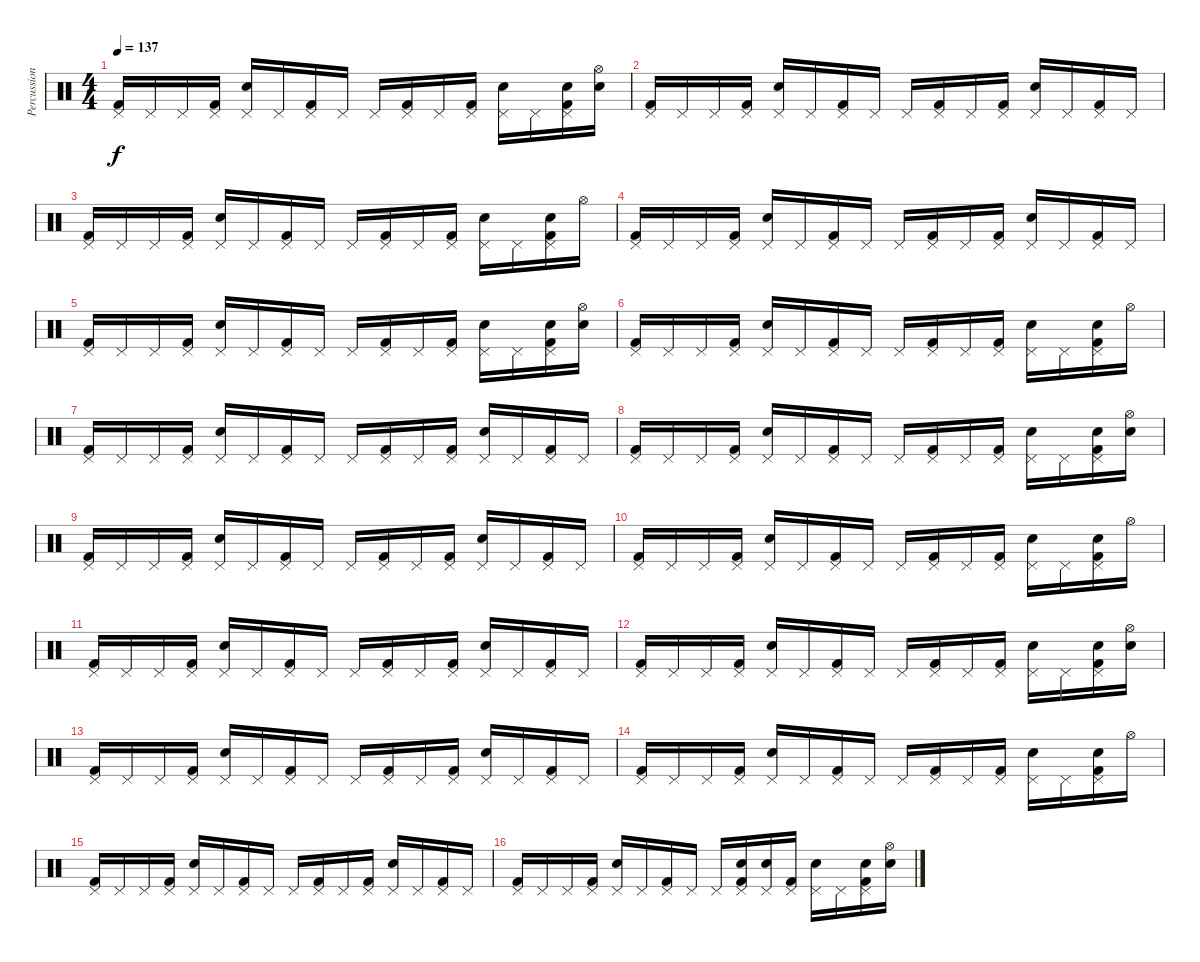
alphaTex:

\track ("Percussion" "Percussion") {instrument percussion}
\staff {score}
\articulation defaults
\ts (4 4)
\tempo 137
\clef neutral
\ks c
("Pedal Hi-Hat (hit)" "Kick (hit) 2").16{dy f} "Pedal Hi-Hat (hit)".16 "Pedal Hi-Hat (hit)".16 ("Pedal Hi-Hat (hit)" "Kick (hit) 2").16 ("Pedal Hi-Hat (hit)" "Snare (hit) 2").16 "Pedal Hi-Hat (hit)".16 ("Pedal Hi-Hat (hit)" "Kick (hit) 2").16 "Pedal Hi-Hat (hit)".16 "Pedal Hi-Hat (hit)".16 ("Pedal Hi-Hat (hit)" "Kick (hit) 2").16 "Pedal Hi-Hat (hit)".16 ("Pedal Hi-Hat (hit)" "Kick (hit) 2").16 ("Pedal Hi-Hat (hit)" "Snare (hit) 2").16 "Pedal Hi-Hat (hit)".16 ("Pedal Hi-Hat (hit)" "Snare (hit) 2" "Kick (hit) 2").16 ("Hi-Hat (open)" "Snare (hit) 2").16 |
("Pedal Hi-Hat (hit)" "Kick (hit) 2").16 "Pedal Hi-Hat (hit)".16 "Pedal Hi-Hat (hit)".16 ("Pedal Hi-Hat (hit)" "Kick (hit) 2").16 ("Pedal Hi-Hat (hit)" "Snare (hit) 2").16 "Pedal Hi-Hat (hit)".16 ("Pedal Hi-Hat (hit)" "Kick (hit) 2").16 "Pedal Hi-Hat (hit)".16 "Pedal Hi-Hat (hit)".16 ("Pedal Hi-Hat (hit)" "Kick (hit) 2").16 "Pedal Hi-Hat (hit)".16 ("Pedal Hi-Hat (hit)" "Kick (hit) 2").16 ("Pedal Hi-Hat (hit)" "Snare (hit) 2").16 "Pedal Hi-Hat (hit)".16 ("Pedal Hi-Hat (hit)" "Kick (hit) 2").16 "Pedal Hi-Hat (hit)".16 |
("Pedal Hi-Hat (hit)" "Kick (hit) 2").16 "Pedal Hi-Hat (hit)".16 "Pedal Hi-Hat (hit)".16 ("Pedal Hi-Hat (hit)" "Kick (hit) 2").16 ("Pedal Hi-Hat (hit)" "Snare (hit) 2").16 "Pedal Hi-Hat (hit)".16 ("Pedal Hi-Hat (hit)" "Kick (hit) 2").16 "Pedal Hi-Hat (hit)".16 "Pedal Hi-Hat (hit)".16 ("Pedal Hi-Hat (hit)" "Kick (hit) 2").16 "Pedal Hi-Hat (hit)".16 ("Pedal Hi-Hat (hit)" "Kick (hit) 2").16 ("Pedal Hi-Hat (hit)" "Snare (hit) 2").16 "Pedal Hi-Hat (hit)".16 ("Pedal Hi-Hat (hit)" "Snare (hit) 2" "Kick (hit) 2").16 "Hi-Hat (open)".16 |
("Pedal Hi-Hat (hit)" "Kick (hit) 2").16 "Pedal Hi-Hat (hit)".16 "Pedal Hi-Hat (hit)".16 ("Pedal Hi-Hat (hit)" "Kick (hit) 2").16 ("Pedal Hi-Hat (hit)" "Snare (hit) 2").16 "Pedal Hi-Hat (hit)".16 ("Pedal Hi-Hat (hit)" "Kick (hit) 2").16 "Pedal Hi-Hat (hit)".16 "Pedal Hi-Hat (hit)".16 ("Pedal Hi-Hat (hit)" "Kick (hit) 2").16 "Pedal Hi-Hat (hit)".16 ("Pedal Hi-Hat (hit)" "Kick (hit) 2").16 ("Pedal Hi-Hat (hit)" "Snare (hit) 2").16 "Pedal Hi-Hat (hit)".16 ("Pedal Hi-Hat (hit)" "Kick (hit) 2").16 "Pedal Hi-Hat (hit)".16 |
("Pedal Hi-Hat (hit)" "Kick (hit) 2").16 "Pedal Hi-Hat (hit)".16 "Pedal Hi-Hat (hit)".16 ("Pedal Hi-Hat (hit)" "Kick (hit) 2").16 ("Pedal Hi-Hat (hit)" "Snare (hit) 2").16 "Pedal Hi-Hat (hit)".16 ("Pedal Hi-Hat (hit)" "Kick (hit) 2").16 "Pedal Hi-Hat (hit)".16 "Pedal Hi-Hat (hit)".16 ("Pedal Hi-Hat (hit)" "Kick (hit) 2").16 "Pedal Hi-Hat (hit)".16 ("Pedal Hi-Hat (hit)" "Kick (hit) 2").16 ("Pedal Hi-Hat (hit)" "Snare (hit) 2").16 "Pedal Hi-Hat (hit)".16 ("Pedal Hi-Hat (hit)" "Snare (hit) 2" "Kick (hit) 2").16 ("Hi-Hat (open)" "Snare (hit) 2").16 |
("Pedal Hi-Hat (hit)" "Kick (hit) 2").16 "Pedal Hi-Hat (hit)".16 "Pedal Hi-Hat (hit)".16 ("Pedal Hi-Hat (hit)" "Kick (hit) 2").16 ("Pedal Hi-Hat (hit)" "Snare (hit) 2").16 "Pedal Hi-Hat (hit)".16 ("Pedal Hi-Hat (hit)" "Kick (hit) 2").16 "Pedal Hi-Hat (hit)".16 "Pedal Hi-Hat (hit)".16 ("Pedal Hi-Hat (hit)" "Kick (hit) 2").16 "Pedal Hi-Hat (hit)".16 ("Pedal Hi-Hat (hit)" "Kick (hit) 2").16 ("Pedal Hi-Hat (hit)" "Snare (hit) 2").16 "Pedal Hi-Hat (hit)".16 ("Pedal Hi-Hat (hit)" "Snare (hit) 2" "Kick (hit) 2").16 "Hi-Hat (open)".16 |
("Pedal Hi-Hat (hit)" "Kick (hit) 2").16 "Pedal Hi-Hat (hit)".16 "Pedal Hi-Hat (hit)".16 ("Pedal Hi-Hat (hit)" "Kick (hit) 2").16 ("Pedal Hi-Hat (hit)" "Snare (hit) 2").16 "Pedal Hi-Hat (hit)".16 ("Pedal Hi-Hat (hit)" "Kick (hit) 2").16 "Pedal Hi-Hat (hit)".16 "Pedal Hi-Hat (hit)".16 ("Pedal Hi-Hat (hit)" "Kick (hit) 2").16 "Pedal Hi-Hat (hit)".16 ("Pedal Hi-Hat (hit)" "Kick (hit) 2").16 ("Pedal Hi-Hat (hit)" "Snare (hit) 2").16 "Pedal Hi-Hat (hit)".16 ("Pedal Hi-Hat (hit)" "Kick (hit) 2").16 "Pedal Hi-Hat (hit)".16 |
("Pedal Hi-Hat (hit)" "Kick (hit) 2").16 "Pedal Hi-Hat (hit)".16 "Pedal Hi-Hat (hit)".16 ("Pedal Hi-Hat (hit)" "Kick (hit) 2").16 ("Pedal Hi-Hat (hit)" "Snare (hit) 2").16 "Pedal Hi-Hat (hit)".16 ("Pedal Hi-Hat (hit)" "Kick (hit) 2").16 "Pedal Hi-Hat (hit)".16 "Pedal Hi-Hat (hit)".16 ("Pedal Hi-Hat (hit)" "Kick (hit) 2").16 "Pedal Hi-Hat (hit)".16 ("Pedal Hi-Hat (hit)" "Kick (hit) 2").16 ("Pedal Hi-Hat (hit)" "Snare (hit) 2").16 "Pedal Hi-Hat (hit)".16 ("Pedal Hi-Hat (hit)" "Snare (hit) 2" "Kick (hit) 2").16 ("Hi-Hat (open)" "Snare (hit) 2").16 |
("Pedal Hi-Hat (hit)" "Kick (hit) 2").16 "Pedal Hi-Hat (hit)".16 "Pedal Hi-Hat (hit)".16 ("Pedal Hi-Hat (hit)" "Kick (hit) 2").16 ("Pedal Hi-Hat (hit)" "Snare (hit) 2").16 "Pedal Hi-Hat (hit)".16 ("Pedal Hi-Hat (hit)" "Kick (hit) 2").16 "Pedal Hi-Hat (hit)".16 "Pedal Hi-Hat (hit)".16 ("Pedal Hi-Hat (hit)" "Kick (hit) 2").16 "Pedal Hi-Hat (hit)".16 ("Pedal Hi-Hat (hit)" "Kick (hit) 2").16 ("Pedal Hi-Hat (hit)" "Snare (hit) 2").16 "Pedal Hi-Hat (hit)".16 ("Pedal Hi-Hat (hit)" "Kick (hit) 2").16 "Pedal Hi-Hat (hit)".16 |
("Pedal Hi-Hat (hit)" "Kick (hit) 2").16 "Pedal Hi-Hat (hit)".16 "Pedal Hi-Hat (hit)".16 ("Pedal Hi-Hat (hit)" "Kick (hit) 2").16 ("Pedal Hi-Hat (hit)" "Snare (hit) 2").16 "Pedal Hi-Hat (hit)".16 ("Pedal Hi-Hat (hit)" "Kick (hit) 2").16 "Pedal Hi-Hat (hit)".16 "Pedal Hi-Hat (hit)".16 ("Pedal Hi-Hat (hit)" "Kick (hit) 2").16 "Pedal Hi-Hat (hit)".16 ("Pedal Hi-Hat (hit)" "Kick (hit) 2").16 ("Pedal Hi-Hat (hit)" "Snare (hit) 2").16 "Pedal Hi-Hat (hit)".16 ("Pedal Hi-Hat (hit)" "Snare (hit) 2" "Kick (hit) 2").16 "Hi-Hat (open)".16 |
("Pedal Hi-Hat (hit)" "Kick (hit) 2").16 "Pedal Hi-Hat (hit)".16 "Pedal Hi-Hat (hit)".16 ("Pedal Hi-Hat (hit)" "Kick (hit) 2").16 ("Pedal Hi-Hat (hit)" "Snare (hit) 2").16 "Pedal Hi-Hat (hit)".16 ("Pedal Hi-Hat (hit)" "Kick (hit) 2").16 "Pedal Hi-Hat (hit)".16 "Pedal Hi-Hat (hit)".16 ("Pedal Hi-Hat (hit)" "Kick (hit) 2").16 "Pedal Hi-Hat (hit)".16 ("Pedal Hi-Hat (hit)" "Kick (hit) 2").16 ("Pedal Hi-Hat (hit)" "Snare (hit) 2").16 "Pedal Hi-Hat (hit)".16 ("Pedal Hi-Hat (hit)" "Kick (hit) 2").16 "Pedal Hi-Hat (hit)".16 |
("Pedal Hi-Hat (hit)" "Kick (hit) 2").16 "Pedal Hi-Hat (hit)".16 "Pedal Hi-Hat (hit)".16 ("Pedal Hi-Hat (hit)" "Kick (hit) 2").16 ("Pedal Hi-Hat (hit)" "Snare (hit) 2").16 "Pedal Hi-Hat (hit)".16 ("Pedal Hi-Hat (hit)" "Kick (hit) 2").16 "Pedal Hi-Hat (hit)".16 "Pedal Hi-Hat (hit)".16 ("Pedal Hi-Hat (hit)" "Kick (hit) 2").16 "Pedal Hi-Hat (hit)".16 ("Pedal Hi-Hat (hit)" "Kick (hit) 2").16 ("Pedal Hi-Hat (hit)" "Snare (hit) 2").16 "Pedal Hi-Hat (hit)".16 ("Pedal Hi-Hat (hit)" "Snare (hit) 2" "Kick (hit) 2").16 ("Hi-Hat (open)" "Snare (hit) 2").16 |
("Pedal Hi-Hat (hit)" "Kick (hit) 2").16 "Pedal Hi-Hat (hit)".16 "Pedal Hi-Hat (hit)".16 ("Pedal Hi-Hat (hit)" "Kick (hit) 2").16 ("Pedal Hi-Hat (hit)" "Snare (hit) 2").16 "Pedal Hi-Hat (hit)".16 ("Pedal Hi-Hat (hit)" "Kick (hit) 2").16 "Pedal Hi-Hat (hit)".16 "Pedal Hi-Hat (hit)".16 ("Pedal Hi-Hat (hit)" "Kick (hit) 2").16 "Pedal Hi-Hat (hit)".16 ("Pedal Hi-Hat (hit)" "Kick (hit) 2").16 ("Pedal Hi-Hat (hit)" "Snare (hit) 2").16 "Pedal Hi-Hat (hit)".16 ("Pedal Hi-Hat (hit)" "Kick (hit) 2").16 "Pedal Hi-Hat (hit)".16 |
("Pedal Hi-Hat (hit)" "Kick (hit) 2").16 "Pedal Hi-Hat (hit)".16 "Pedal Hi-Hat (hit)".16 ("Pedal Hi-Hat (hit)" "Kick (hit) 2").16 ("Pedal Hi-Hat (hit)" "Snare (hit) 2").16 "Pedal Hi-Hat (hit)".16 ("Pedal Hi-Hat (hit)" "Kick (hit) 2").16 "Pedal Hi-Hat (hit)".16 "Pedal Hi-Hat (hit)".16 ("Pedal Hi-Hat (hit)" "Kick (hit) 2").16 "Pedal Hi-Hat (hit)".16 ("Pedal Hi-Hat (hit)" "Kick (hit) 2").16 ("Pedal Hi-Hat (hit)" "Snare (hit) 2").16 "Pedal Hi-Hat (hit)".16 ("Pedal Hi-Hat (hit)" "Snare (hit) 2" "Kick (hit) 2").16 "Hi-Hat (open)".16 |
("Pedal Hi-Hat (hit)" "Kick (hit) 2").16 "Pedal Hi-Hat (hit)".16 "Pedal Hi-Hat (hit)".16 ("Pedal Hi-Hat (hit)" "Kick (hit) 2").16 ("Pedal Hi-Hat (hit)" "Snare (hit) 2").16 "Pedal Hi-Hat (hit)".16 ("Pedal Hi-Hat (hit)" "Kick (hit) 2").16 "Pedal Hi-Hat (hit)".16 "Pedal Hi-Hat (hit)".16 ("Pedal Hi-Hat (hit)" "Kick (hit) 2").16 "Pedal Hi-Hat (hit)".16 ("Pedal Hi-Hat (hit)" "Kick (hit) 2").16 ("Pedal Hi-Hat (hit)" "Snare (hit) 2").16 "Pedal Hi-Hat (hit)".16 ("Pedal Hi-Hat (hit)" "Kick (hit) 2").16 "Pedal Hi-Hat (hit)".16 |
("Pedal Hi-Hat (hit)" "Kick (hit) 2").16 "Pedal Hi-Hat (hit)".16 "Pedal Hi-Hat (hit)".16 ("Pedal Hi-Hat (hit)" "Kick (hit) 2").16 ("Pedal Hi-Hat (hit)" "Snare (hit) 2").16 "Pedal Hi-Hat (hit)".16 ("Pedal Hi-Hat (hit)" "Kick (hit) 2").16 "Pedal Hi-Hat (hit)".16 "Pedal Hi-Hat (hit)".16 ("Pedal Hi-Hat (hit)" "Snare (hit) 2" "Kick (hit) 2").16 ("Pedal Hi-Hat (hit)" "Snare (hit) 2").16 ("Pedal Hi-Hat (hit)" "Kick (hit) 2").16 ("Pedal Hi-Hat (hit)" "Snare (hit) 2").16 "Pedal Hi-Hat (hit)".16 ("Pedal Hi-Hat (hit)" "Snare (hit) 2" "Kick (hit) 2").16 ("Hi-Hat (open)" "Snare (hit) 2").16
